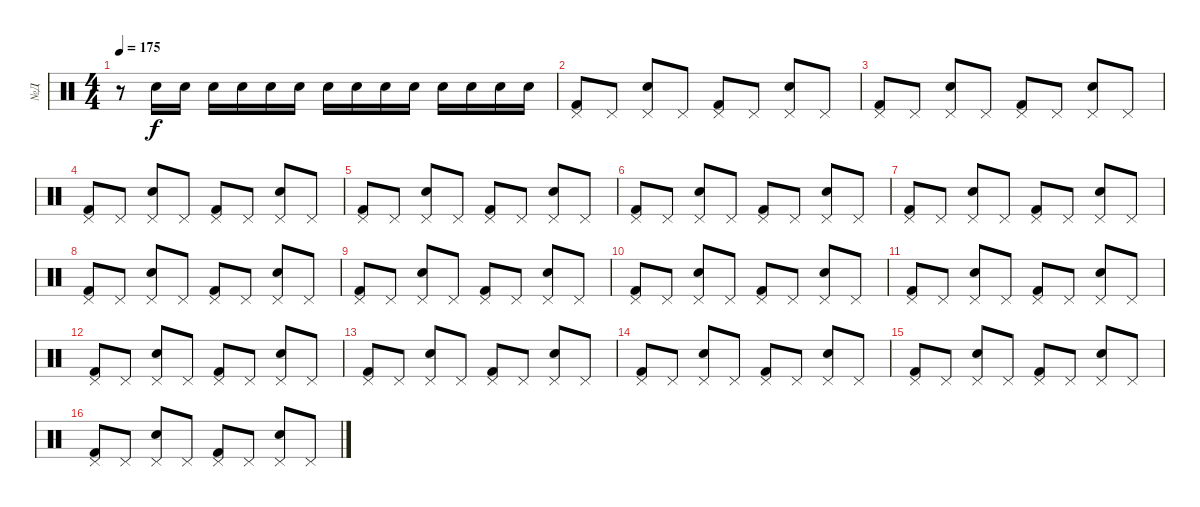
\track ("№Д" "№Д") {instrument percussion}
\staff {score}
\articulation defaults
\ts (4 4)
\tempo 175
\clef neutral
\ks c
r.8{dy f} "Electric Snare (hit)".16 "Electric Snare (hit)".16 "Electric Snare (hit)".16 "Electric Snare (hit)".16 "Electric Snare (hit)".16 "Electric Snare (hit)".16 "Electric Snare (hit)".16 "Electric Snare (hit)".16 "Electric Snare (hit)".16 "Electric Snare (hit)".16 "Electric Snare (hit)".16 "Electric Snare (hit)".16 "Electric Snare (hit)".16 "Electric Snare (hit)".16 |
("Pedal Hi-Hat (hit)" "Kick (hit) 2").8 "Pedal Hi-Hat (hit)".8 ("Pedal Hi-Hat (hit)" "Electric Snare (hit)").8 "Pedal Hi-Hat (hit)".8 ("Pedal Hi-Hat (hit)" "Kick (hit) 2").8 "Pedal Hi-Hat (hit)".8 ("Pedal Hi-Hat (hit)" "Electric Snare (hit)").8 "Pedal Hi-Hat (hit)".8 |
("Pedal Hi-Hat (hit)" "Kick (hit) 2").8 "Pedal Hi-Hat (hit)".8 ("Pedal Hi-Hat (hit)" "Electric Snare (hit)").8 "Pedal Hi-Hat (hit)".8 ("Pedal Hi-Hat (hit)" "Kick (hit) 2").8 "Pedal Hi-Hat (hit)".8 ("Pedal Hi-Hat (hit)" "Electric Snare (hit)").8 "Pedal Hi-Hat (hit)".8 |
("Pedal Hi-Hat (hit)" "Kick (hit) 2").8 "Pedal Hi-Hat (hit)".8 ("Pedal Hi-Hat (hit)" "Electric Snare (hit)").8 "Pedal Hi-Hat (hit)".8 ("Pedal Hi-Hat (hit)" "Kick (hit) 2").8 "Pedal Hi-Hat (hit)".8 ("Pedal Hi-Hat (hit)" "Electric Snare (hit)").8 "Pedal Hi-Hat (hit)".8 |
("Pedal Hi-Hat (hit)" "Kick (hit) 2").8 "Pedal Hi-Hat (hit)".8 ("Pedal Hi-Hat (hit)" "Electric Snare (hit)").8 "Pedal Hi-Hat (hit)".8 ("Pedal Hi-Hat (hit)" "Kick (hit) 2").8 "Pedal Hi-Hat (hit)".8 ("Pedal Hi-Hat (hit)" "Electric Snare (hit)").8 "Pedal Hi-Hat (hit)".8 |
("Pedal Hi-Hat (hit)" "Kick (hit) 2").8 "Pedal Hi-Hat (hit)".8 ("Pedal Hi-Hat (hit)" "Electric Snare (hit)").8 "Pedal Hi-Hat (hit)".8 ("Pedal Hi-Hat (hit)" "Kick (hit) 2").8 "Pedal Hi-Hat (hit)".8 ("Pedal Hi-Hat (hit)" "Electric Snare (hit)").8 "Pedal Hi-Hat (hit)".8 |
("Pedal Hi-Hat (hit)" "Kick (hit) 2").8 "Pedal Hi-Hat (hit)".8 ("Pedal Hi-Hat (hit)" "Electric Snare (hit)").8 "Pedal Hi-Hat (hit)".8 ("Pedal Hi-Hat (hit)" "Kick (hit) 2").8 "Pedal Hi-Hat (hit)".8 ("Pedal Hi-Hat (hit)" "Electric Snare (hit)").8 "Pedal Hi-Hat (hit)".8 |
("Pedal Hi-Hat (hit)" "Kick (hit) 2").8 "Pedal Hi-Hat (hit)".8 ("Pedal Hi-Hat (hit)" "Electric Snare (hit)").8 "Pedal Hi-Hat (hit)".8 ("Pedal Hi-Hat (hit)" "Kick (hit) 2").8 "Pedal Hi-Hat (hit)".8 ("Pedal Hi-Hat (hit)" "Electric Snare (hit)").8 "Pedal Hi-Hat (hit)".8 |
("Pedal Hi-Hat (hit)" "Kick (hit) 2").8 "Pedal Hi-Hat (hit)".8 ("Pedal Hi-Hat (hit)" "Electric Snare (hit)").8 "Pedal Hi-Hat (hit)".8 ("Pedal Hi-Hat (hit)" "Kick (hit) 2").8 "Pedal Hi-Hat (hit)".8 ("Pedal Hi-Hat (hit)" "Electric Snare (hit)").8 "Pedal Hi-Hat (hit)".8 |
("Pedal Hi-Hat (hit)" "Kick (hit) 2").8 "Pedal Hi-Hat (hit)".8 ("Pedal Hi-Hat (hit)" "Electric Snare (hit)").8 "Pedal Hi-Hat (hit)".8 ("Pedal Hi-Hat (hit)" "Kick (hit) 2").8 "Pedal Hi-Hat (hit)".8 ("Pedal Hi-Hat (hit)" "Electric Snare (hit)").8 "Pedal Hi-Hat (hit)".8 |
("Pedal Hi-Hat (hit)" "Kick (hit) 2").8 "Pedal Hi-Hat (hit)".8 ("Pedal Hi-Hat (hit)" "Electric Snare (hit)").8 "Pedal Hi-Hat (hit)".8 ("Pedal Hi-Hat (hit)" "Kick (hit) 2").8 "Pedal Hi-Hat (hit)".8 ("Pedal Hi-Hat (hit)" "Electric Snare (hit)").8 "Pedal Hi-Hat (hit)".8 |
("Pedal Hi-Hat (hit)" "Kick (hit) 2").8 "Pedal Hi-Hat (hit)".8 ("Pedal Hi-Hat (hit)" "Electric Snare (hit)").8 "Pedal Hi-Hat (hit)".8 ("Pedal Hi-Hat (hit)" "Kick (hit) 2").8 "Pedal Hi-Hat (hit)".8 ("Pedal Hi-Hat (hit)" "Electric Snare (hit)").8 "Pedal Hi-Hat (hit)".8 |
("Pedal Hi-Hat (hit)" "Kick (hit) 2").8 "Pedal Hi-Hat (hit)".8 ("Pedal Hi-Hat (hit)" "Electric Snare (hit)").8 "Pedal Hi-Hat (hit)".8 ("Pedal Hi-Hat (hit)" "Kick (hit) 2").8 "Pedal Hi-Hat (hit)".8 ("Pedal Hi-Hat (hit)" "Electric Snare (hit)").8 "Pedal Hi-Hat (hit)".8 |
("Pedal Hi-Hat (hit)" "Kick (hit) 2").8 "Pedal Hi-Hat (hit)".8 ("Pedal Hi-Hat (hit)" "Electric Snare (hit)").8 "Pedal Hi-Hat (hit)".8 ("Pedal Hi-Hat (hit)" "Kick (hit) 2").8 "Pedal Hi-Hat (hit)".8 ("Pedal Hi-Hat (hit)" "Electric Snare (hit)").8 "Pedal Hi-Hat (hit)".8 |
("Pedal Hi-Hat (hit)" "Kick (hit) 2").8 "Pedal Hi-Hat (hit)".8 ("Pedal Hi-Hat (hit)" "Electric Snare (hit)").8 "Pedal Hi-Hat (hit)".8 ("Pedal Hi-Hat (hit)" "Kick (hit) 2").8 "Pedal Hi-Hat (hit)".8 ("Pedal Hi-Hat (hit)" "Electric Snare (hit)").8 "Pedal Hi-Hat (hit)".8 |
("Pedal Hi-Hat (hit)" "Kick (hit) 2").8 "Pedal Hi-Hat (hit)".8 ("Pedal Hi-Hat (hit)" "Electric Snare (hit)").8 "Pedal Hi-Hat (hit)".8 ("Pedal Hi-Hat (hit)" "Kick (hit) 2").8 "Pedal Hi-Hat (hit)".8 ("Pedal Hi-Hat (hit)" "Electric Snare (hit)").8 "Pedal Hi-Hat (hit)".8
